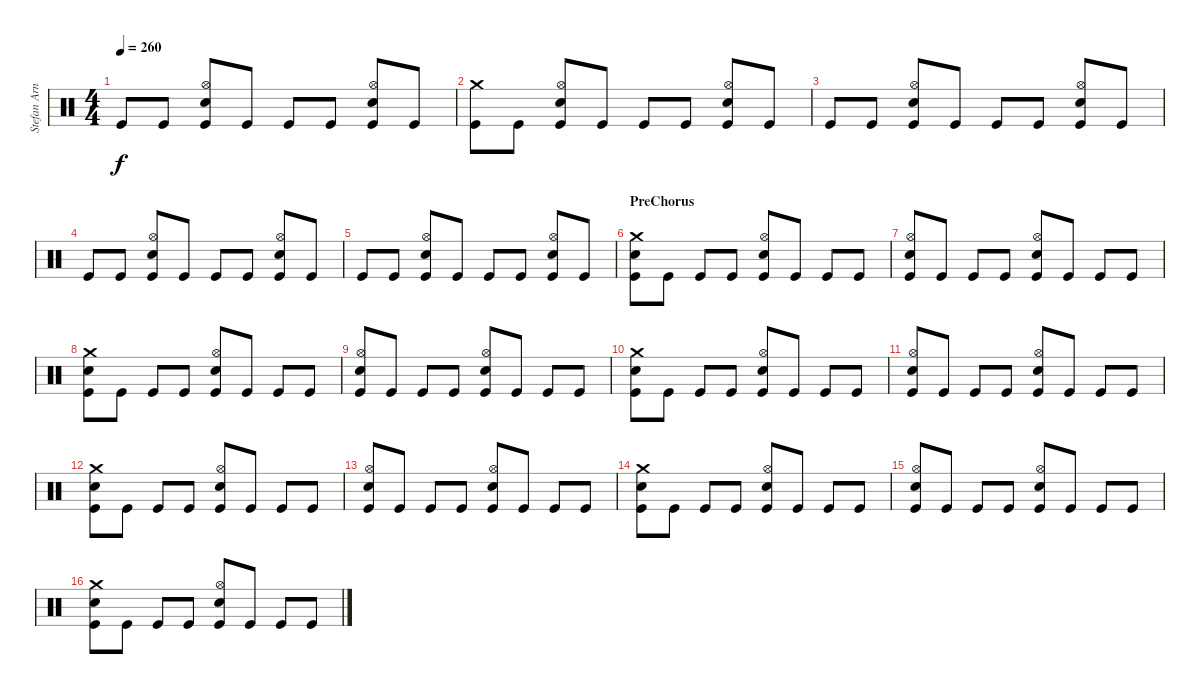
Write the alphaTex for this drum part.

\track ("Stefan Arnold" "Stefan Arn") {instrument percussion}
\staff {score}
\articulation defaults
\ts (4 4)
\tempo 260
\clef neutral
\ks c "Kick (hit)".8{dy f} "Kick (hit)".8
("Hi-Hat (open)" "Electric Snare (hit)" "Kick (hit)").8 "Kick (hit)".8 "Kick (hit)".8 "Kick (hit)".8 ("Hi-Hat (open)" "Electric Snare (hit)" "Kick (hit)").8 "Kick (hit)".8 |
("Crash medium (hit)" "Kick (hit)").8 "Kick (hit)".8 ("Hi-Hat (open)" "Electric Snare (hit)" "Kick (hit)").8 "Kick (hit)".8 "Kick (hit)".8 "Kick (hit)".8 ("Hi-Hat (open)" "Electric Snare (hit)" "Kick (hit)").8 "Kick (hit)".8 |
"Kick (hit)".8 "Kick (hit)".8 ("Hi-Hat (open)" "Electric Snare (hit)" "Kick (hit)").8 "Kick (hit)".8 "Kick (hit)".8 "Kick (hit)".8 ("Hi-Hat (open)" "Electric Snare (hit)" "Kick (hit)").8 "Kick (hit)".8 |
"Kick (hit)".8 "Kick (hit)".8 ("Hi-Hat (open)" "Electric Snare (hit)" "Kick (hit)").8 "Kick (hit)".8 "Kick (hit)".8 "Kick (hit)".8 ("Hi-Hat (open)" "Electric Snare (hit)" "Kick (hit)").8 "Kick (hit)".8 |
"Kick (hit)".8 "Kick (hit)".8 ("Hi-Hat (open)" "Electric Snare (hit)" "Kick (hit)").8 "Kick (hit)".8 "Kick (hit)".8 "Kick (hit)".8 ("Hi-Hat (open)" "Electric Snare (hit)" "Kick (hit)").8 "Kick (hit)".8 |
\section ("" "PreChorus")
("Crash medium (hit)" "Electric Snare (hit)" "Kick (hit)").8 "Kick (hit)".8 "Kick (hit)".8 "Kick (hit)".8 ("Hi-Hat (open)" "Electric Snare (hit)" "Kick (hit)").8 "Kick (hit)".8 "Kick (hit)".8 "Kick (hit)".8 |
("Hi-Hat (open)" "Electric Snare (hit)" "Kick (hit)").8 "Kick (hit)".8 "Kick (hit)".8 "Kick (hit)".8 ("Hi-Hat (open)" "Electric Snare (hit)" "Kick (hit)").8 "Kick (hit)".8 "Kick (hit)".8 "Kick (hit)".8 |
("Crash medium (hit)" "Electric Snare (hit)" "Kick (hit)").8 "Kick (hit)".8 "Kick (hit)".8 "Kick (hit)".8 ("Hi-Hat (open)" "Electric Snare (hit)" "Kick (hit)").8 "Kick (hit)".8 "Kick (hit)".8 "Kick (hit)".8 |
("Hi-Hat (open)" "Electric Snare (hit)" "Kick (hit)").8 "Kick (hit)".8 "Kick (hit)".8 "Kick (hit)".8 ("Hi-Hat (open)" "Electric Snare (hit)" "Kick (hit)").8 "Kick (hit)".8 "Kick (hit)".8 "Kick (hit)".8 |
("Crash medium (hit)" "Electric Snare (hit)" "Kick (hit)").8 "Kick (hit)".8 "Kick (hit)".8 "Kick (hit)".8 ("Hi-Hat (open)" "Electric Snare (hit)" "Kick (hit)").8 "Kick (hit)".8 "Kick (hit)".8 "Kick (hit)".8 |
("Hi-Hat (open)" "Electric Snare (hit)" "Kick (hit)").8 "Kick (hit)".8 "Kick (hit)".8 "Kick (hit)".8 ("Hi-Hat (open)" "Electric Snare (hit)" "Kick (hit)").8 "Kick (hit)".8 "Kick (hit)".8 "Kick (hit)".8 |
("Crash medium (hit)" "Electric Snare (hit)" "Kick (hit)").8 "Kick (hit)".8 "Kick (hit)".8 "Kick (hit)".8 ("Hi-Hat (open)" "Electric Snare (hit)" "Kick (hit)").8 "Kick (hit)".8 "Kick (hit)".8 "Kick (hit)".8 |
("Hi-Hat (open)" "Electric Snare (hit)" "Kick (hit)").8 "Kick (hit)".8 "Kick (hit)".8 "Kick (hit)".8 ("Hi-Hat (open)" "Electric Snare (hit)" "Kick (hit)").8 "Kick (hit)".8 "Kick (hit)".8 "Kick (hit)".8 |
("Crash medium (hit)" "Electric Snare (hit)" "Kick (hit)").8 "Kick (hit)".8 "Kick (hit)".8 "Kick (hit)".8 ("Hi-Hat (open)" "Electric Snare (hit)" "Kick (hit)").8 "Kick (hit)".8 "Kick (hit)".8 "Kick (hit)".8 |
("Hi-Hat (open)" "Electric Snare (hit)" "Kick (hit)").8 "Kick (hit)".8 "Kick (hit)".8 "Kick (hit)".8 ("Hi-Hat (open)" "Electric Snare (hit)" "Kick (hit)").8 "Kick (hit)".8 "Kick (hit)".8 "Kick (hit)".8 |
("Crash medium (hit)" "Electric Snare (hit)" "Kick (hit)").8 "Kick (hit)".8 "Kick (hit)".8 "Kick (hit)".8 ("Hi-Hat (open)" "Electric Snare (hit)" "Kick (hit)").8 "Kick (hit)".8 "Kick (hit)".8 "Kick (hit)".8
